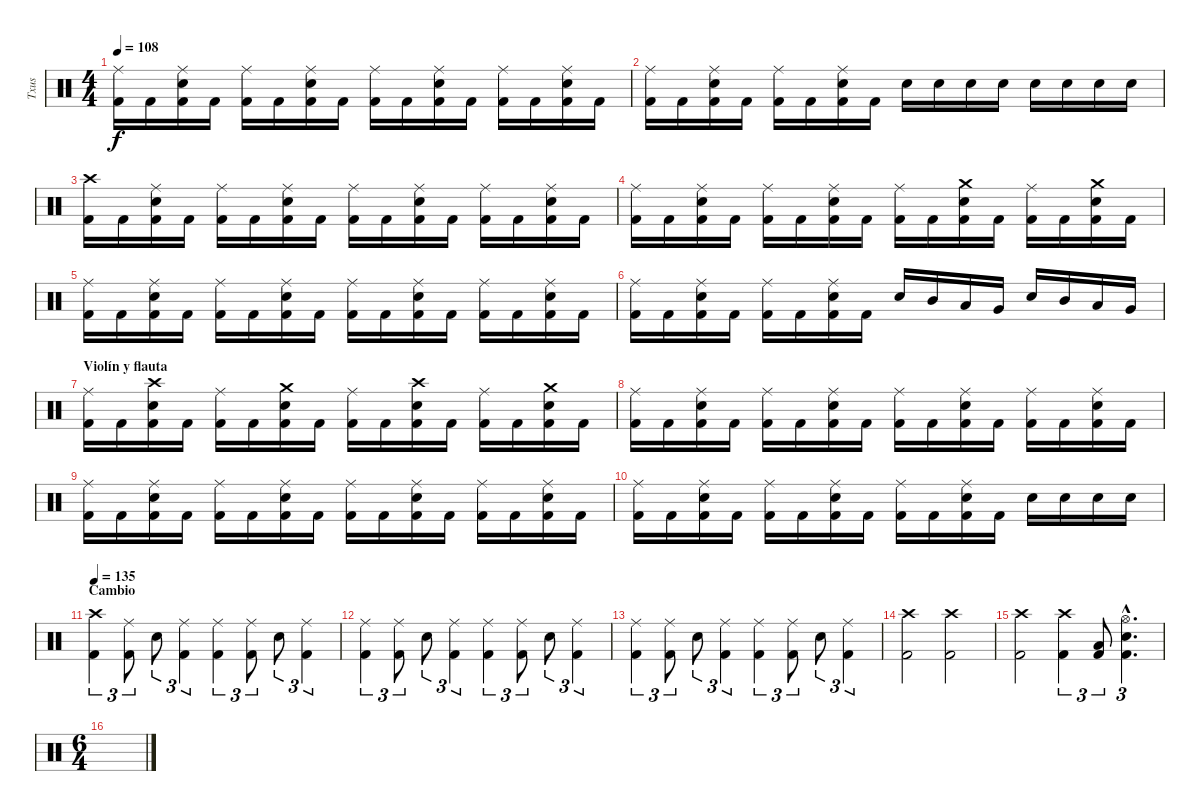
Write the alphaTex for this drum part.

\track ("Txus" "Txus") {instrument percussion}
\staff {score}
\articulation defaults
\ts (4 4)
\tempo 108
\clef neutral
\ks c
("Kick (hit) 2" "Ride (middle)").16{dy f} "Kick (hit) 2".16 ("Kick (hit) 2" "Electric Snare (hit)" "Ride (middle)").16 "Kick (hit) 2".16 ("Kick (hit) 2" "Ride (middle)").16 "Kick (hit) 2".16 ("Kick (hit) 2" "Electric Snare (hit)" "Ride (middle)").16 "Kick (hit) 2".16 ("Kick (hit) 2" "Ride (middle)").16 "Kick (hit) 2".16 ("Kick (hit) 2" "Electric Snare (hit)" "Ride (middle)").16 "Kick (hit) 2".16 ("Kick (hit) 2" "Ride (middle)").16 "Kick (hit) 2".16 ("Kick (hit) 2" "Electric Snare (hit)" "Ride (middle)").16 "Kick (hit) 2".16 |
("Kick (hit) 2" "Ride (middle)").16 "Kick (hit) 2".16 ("Kick (hit) 2" "Electric Snare (hit)" "Ride (middle)").16 "Kick (hit) 2".16 ("Kick (hit) 2" "Ride (middle)").16 "Kick (hit) 2".16 ("Kick (hit) 2" "Electric Snare (hit)" "Ride (middle)").16 "Kick (hit) 2".16 "Electric Snare (hit)".16 "Electric Snare (hit)".16 "Electric Snare (hit)".16 "Electric Snare (hit)".16 "Electric Snare (hit)".16 "Electric Snare (hit)".16 "Electric Snare (hit)".16 "Electric Snare (hit)".16 |
("Kick (hit) 2" "Crash high (hit)").16 "Kick (hit) 2".16 ("Kick (hit) 2" "Electric Snare (hit)" "Ride (middle)").16 "Kick (hit) 2".16 ("Kick (hit) 2" "Ride (middle)").16 "Kick (hit) 2".16 ("Kick (hit) 2" "Electric Snare (hit)" "Ride (middle)").16 "Kick (hit) 2".16 ("Kick (hit) 2" "Ride (middle)").16 "Kick (hit) 2".16 ("Kick (hit) 2" "Electric Snare (hit)" "Ride (middle)").16 "Kick (hit) 2".16 ("Kick (hit) 2" "Ride (middle)").16 "Kick (hit) 2".16 ("Kick (hit) 2" "Electric Snare (hit)" "Ride (middle)").16 "Kick (hit) 2".16 |
("Kick (hit) 2" "Ride (middle)").16 "Kick (hit) 2".16 ("Kick (hit) 2" "Electric Snare (hit)" "Ride (middle)").16 "Kick (hit) 2".16 ("Kick (hit) 2" "Ride (middle)").16 "Kick (hit) 2".16 ("Kick (hit) 2" "Electric Snare (hit)" "Ride (middle)").16 "Kick (hit) 2".16 ("Kick (hit) 2" "Ride (middle)").16 "Kick (hit) 2".16 ("Kick (hit) 2" "Electric Snare (hit)" "Crash medium (hit)").16 "Kick (hit) 2".16 ("Kick (hit) 2" "Ride (middle)").16 "Kick (hit) 2".16 ("Kick (hit) 2" "Electric Snare (hit)" "Crash medium (hit)").16 "Kick (hit) 2".16 |
("Kick (hit) 2" "Ride (middle)").16 "Kick (hit) 2".16 ("Kick (hit) 2" "Electric Snare (hit)" "Ride (middle)").16 "Kick (hit) 2".16 ("Kick (hit) 2" "Ride (middle)").16 "Kick (hit) 2".16 ("Kick (hit) 2" "Electric Snare (hit)" "Ride (middle)").16 "Kick (hit) 2".16 ("Kick (hit) 2" "Ride (middle)").16 "Kick (hit) 2".16 ("Kick (hit) 2" "Electric Snare (hit)" "Ride (middle)").16 "Kick (hit) 2".16 ("Kick (hit) 2" "Ride (middle)").16 "Kick (hit) 2".16 ("Kick (hit) 2" "Electric Snare (hit)" "Ride (middle)").16 "Kick (hit) 2".16 |
("Kick (hit) 2" "Ride (middle)").16 "Kick (hit) 2".16 ("Kick (hit) 2" "Electric Snare (hit)" "Ride (middle)").16 "Kick (hit) 2".16 ("Kick (hit) 2" "Ride (middle)").16 "Kick (hit) 2".16 ("Kick (hit) 2" "Electric Snare (hit)" "Ride (middle)").16 "Kick (hit) 2".16 "Electric Snare (hit)".16 "Mid Tom (hit)".16 "Low Tom (hit)".16 "Very Low Tom (hit)".16 "Electric Snare (hit)".16 "Mid Tom (hit)".16 "Low Tom (hit)".16 "Very Low Tom (hit)".16 |
\section ("" "Violín y flauta")
("Kick (hit) 2" "Ride (middle)").16 "Kick (hit) 2".16 ("Kick (hit) 2" "Electric Snare (hit)" "Crash high (hit)").16 "Kick (hit) 2".16 ("Kick (hit) 2" "Ride (middle)").16 "Kick (hit) 2".16 ("Kick (hit) 2" "Electric Snare (hit)" "Crash medium (hit)").16 "Kick (hit) 2".16 ("Kick (hit) 2" "Ride (middle)").16 "Kick (hit) 2".16 ("Kick (hit) 2" "Electric Snare (hit)" "Crash high (hit)").16 "Kick (hit) 2".16 ("Kick (hit) 2" "Ride (middle)").16 "Kick (hit) 2".16 ("Kick (hit) 2" "Electric Snare (hit)" "Crash medium (hit)").16 "Kick (hit) 2".16 |
("Kick (hit) 2" "Ride (middle)").16 "Kick (hit) 2".16 ("Kick (hit) 2" "Electric Snare (hit)" "Ride (middle)").16 "Kick (hit) 2".16 ("Kick (hit) 2" "Ride (middle)").16 "Kick (hit) 2".16 ("Kick (hit) 2" "Electric Snare (hit)" "Ride (middle)").16 "Kick (hit) 2".16 ("Kick (hit) 2" "Ride (middle)").16 "Kick (hit) 2".16 ("Kick (hit) 2" "Electric Snare (hit)" "Ride (middle)").16 "Kick (hit) 2".16 ("Kick (hit) 2" "Ride (middle)").16 "Kick (hit) 2".16 ("Kick (hit) 2" "Electric Snare (hit)" "Ride (middle)").16 "Kick (hit) 2".16 |
("Kick (hit) 2" "Ride (middle)").16 "Kick (hit) 2".16 ("Kick (hit) 2" "Electric Snare (hit)" "Ride (middle)").16 "Kick (hit) 2".16 ("Kick (hit) 2" "Ride (middle)").16 "Kick (hit) 2".16 ("Kick (hit) 2" "Electric Snare (hit)" "Ride (middle)").16 "Kick (hit) 2".16 ("Kick (hit) 2" "Ride (middle)").16 "Kick (hit) 2".16 ("Kick (hit) 2" "Electric Snare (hit)" "Ride (middle)").16 "Kick (hit) 2".16 ("Kick (hit) 2" "Ride (middle)").16 "Kick (hit) 2".16 ("Kick (hit) 2" "Electric Snare (hit)" "Ride (middle)").16 "Kick (hit) 2".16 |
("Kick (hit) 2" "Ride (middle)").16 "Kick (hit) 2".16 ("Kick (hit) 2" "Electric Snare (hit)" "Ride (middle)").16 "Kick (hit) 2".16 ("Kick (hit) 2" "Ride (middle)").16 "Kick (hit) 2".16 ("Kick (hit) 2" "Electric Snare (hit)" "Ride (middle)").16 "Kick (hit) 2".16 ("Kick (hit) 2" "Ride (middle)").16 "Kick (hit) 2".16 ("Kick (hit) 2" "Electric Snare (hit)" "Ride (middle)").16 "Kick (hit) 2".16 "Electric Snare (hit)".16 "Electric Snare (hit)".16 "Electric Snare (hit)".16 "Electric Snare (hit)".16 |
\section ("" "Cambio")
\tempo 135
("Kick (hit) 2" "Crash high (hit)").4{tu (3 2)} ("Kick (hit) 2" "Ride (middle)").8{tu (3 2)} "Electric Snare (hit)".8{tu (3 2)} ("Kick (hit) 2" "Ride (middle)").4{tu (3 2)} ("Kick (hit) 2" "Ride (middle)").4{tu (3 2)} ("Kick (hit) 2" "Ride (middle)").8{tu (3 2)} "Electric Snare (hit)".8{tu (3 2)} ("Kick (hit) 2" "Ride (middle)").4{tu (3 2)} |
("Kick (hit) 2" "Ride (middle)").4{tu (3 2)} ("Kick (hit) 2" "Ride (middle)").8{tu (3 2)} "Electric Snare (hit)".8{tu (3 2)} ("Kick (hit) 2" "Ride (middle)").4{tu (3 2)} ("Kick (hit) 2" "Ride (middle)").4{tu (3 2)} ("Kick (hit) 2" "Ride (middle)").8{tu (3 2)} "Electric Snare (hit)".8{tu (3 2)} ("Kick (hit) 2" "Ride (middle)").4{tu (3 2)} |
("Kick (hit) 2" "Ride (middle)").4{tu (3 2)} ("Kick (hit) 2" "Ride (middle)").8{tu (3 2)} "Electric Snare (hit)".8{tu (3 2)} ("Kick (hit) 2" "Ride (middle)").4{tu (3 2)} ("Kick (hit) 2" "Ride (middle)").4{tu (3 2)} ("Kick (hit) 2" "Ride (middle)").8{tu (3 2)} "Electric Snare (hit)".8{tu (3 2)} ("Kick (hit) 2" "Ride (middle)").4{tu (3 2)} |
("Kick (hit) 2" "Crash high (hit)").2 ("Kick (hit) 2" "Crash high (hit)").2 |
("Kick (hit) 2" "Crash high (hit)").2 ("Kick (hit) 2" "Crash high (hit)").4{tu (3 2)} ("Kick (hit) 2" "Low Tom (hit)").8{tu (3 2)} ("Kick (hit) 2"{hac} "Electric Snare (hit)"{hac} "Hi-Hat (open)"{hac}).4{d tu (3 2)} |
\ts (6 4)
